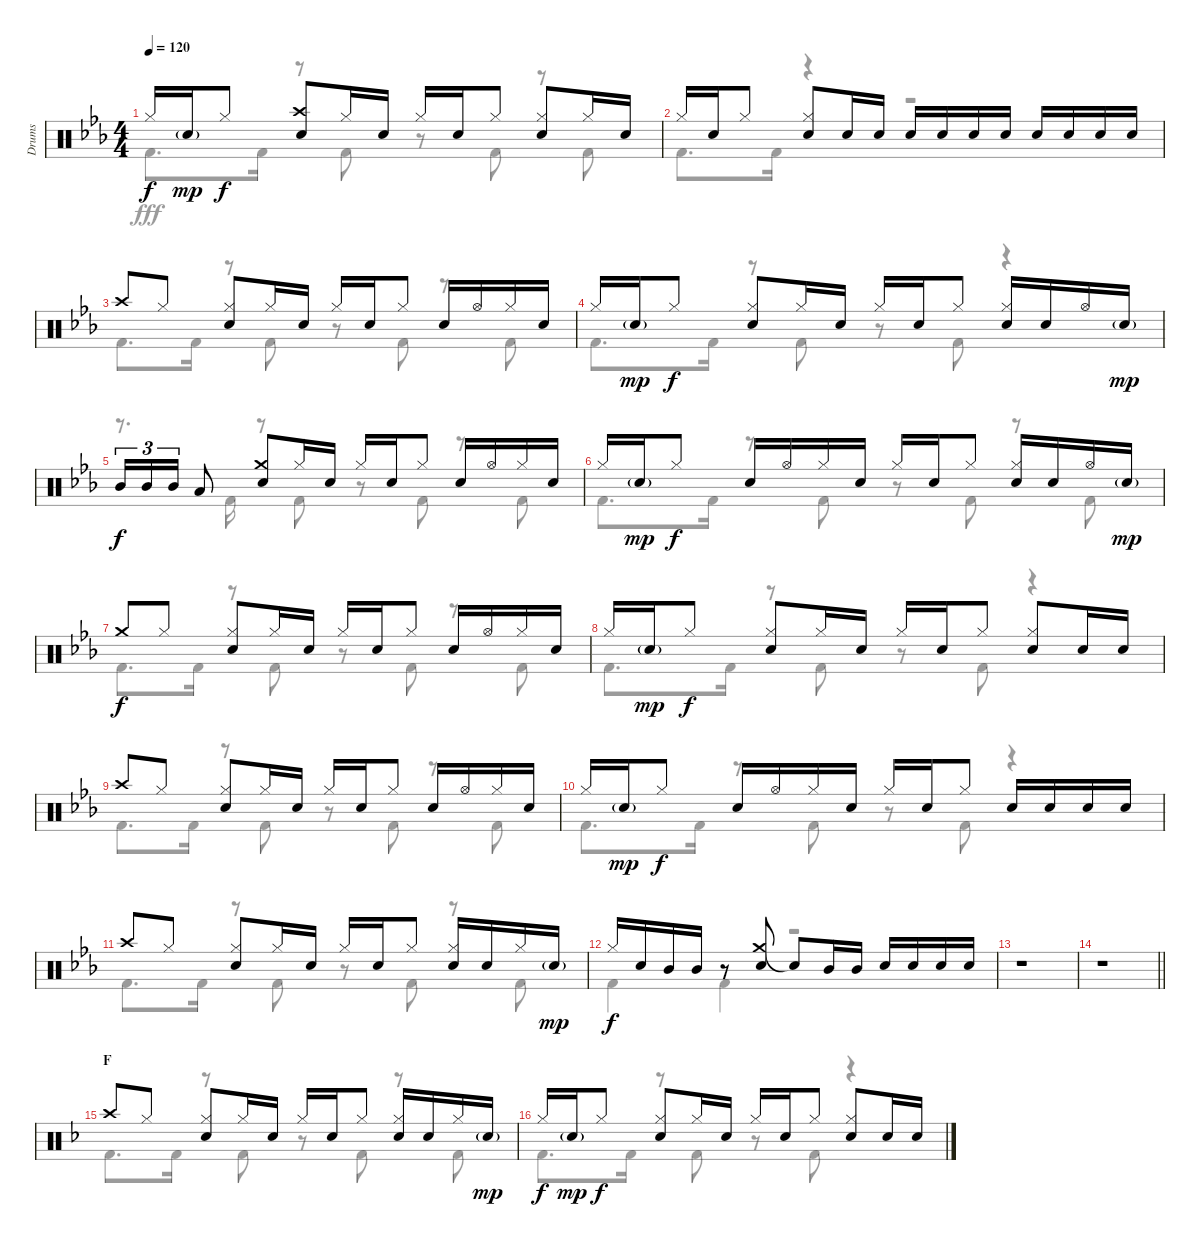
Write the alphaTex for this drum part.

\track ("Drums" "Drums") {instrument percussion}
\staff {score}
\articulation defaults
\voice
\ts (4 4)
\tempo 120
\clef neutral
\ks eb "Hi-Hat (closed)".16{dy f} "Snare (hit) 2"{g}.16{dy mp} "Hi-Hat (closed)".8{dy f}
("Crash high (hit)" "Snare (hit) 2").8 "Hi-Hat (closed)".16 "Snare (hit) 2".16 "Hi-Hat (closed)".16 "Snare (hit) 2".16 "Hi-Hat (closed)".8 ("Hi-Hat (closed)" "Snare (hit) 2").8 "Hi-Hat (closed)".16 "Snare (hit) 2".16 |
"Hi-Hat (closed)".16 "Snare (hit) 2".16 "Hi-Hat (closed)".8 ("Hi-Hat (closed)" "Snare (hit) 2").8 "Snare (hit) 2".16 "Snare (hit) 2".16 "Snare (hit) 2".16 "Snare (hit) 2".16 "Snare (hit) 2".16 "Snare (hit) 2".16 "Snare (hit) 2".16 "Snare (hit) 2".16 "Snare (hit) 2".16 "Snare (hit) 2".16 |
"Crash high (hit)".8 "Hi-Hat (closed)".8 ("Hi-Hat (closed)" "Snare (hit) 2").8 "Hi-Hat (closed)".16 "Snare (hit) 2".16 "Hi-Hat (closed)".16 "Snare (hit) 2".16 "Hi-Hat (closed)".8 "Snare (hit) 2".16 "Hi-Hat (open)".16 "Hi-Hat (closed)".16 "Snare (hit) 2".16 |
"Hi-Hat (closed)".16 "Snare (hit) 2"{g}.16{dy mp} "Hi-Hat (closed)".8{dy f} ("Hi-Hat (closed)" "Snare (hit) 2").8 "Hi-Hat (closed)".16 "Snare (hit) 2".16 "Hi-Hat (closed)".16 "Snare (hit) 2".16 "Hi-Hat (closed)".8 ("Hi-Hat (closed)" "Snare (hit) 2").16 "Snare (hit) 2".16 "Hi-Hat (open)".16 "Snare (hit) 2"{g}.16{dy mp} |
"Mid Tom (hit)".16{tu (3 2) dy f} "Mid Tom (hit)".16{tu (3 2)} "Mid Tom (hit)".16{tu (3 2)} "Low Tom (hit)".8 ("Crash medium (hit)" "Snare (hit) 2").8 "Hi-Hat (closed)".16 "Snare (hit) 2".16 "Hi-Hat (closed)".16 "Snare (hit) 2".16 "Hi-Hat (closed)".8 "Snare (hit) 2".16 "Hi-Hat (open)".16 "Hi-Hat (closed)".16 "Snare (hit) 2".16 |
"Hi-Hat (closed)".16 "Snare (hit) 2"{g}.16{dy mp} "Hi-Hat (closed)".8{dy f} "Snare (hit) 2".16 "Hi-Hat (open)".16 "Hi-Hat (closed)".16 "Snare (hit) 2".16 "Hi-Hat (closed)".16 "Snare (hit) 2".16 "Hi-Hat (closed)".8 ("Hi-Hat (closed)" "Snare (hit) 2").16 "Snare (hit) 2".16 "Hi-Hat (open)".16 "Snare (hit) 2"{g}.16{dy mp} |
"Crash medium (hit)".8{dy f} "Hi-Hat (closed)".8 ("Hi-Hat (closed)" "Snare (hit) 2").8 "Hi-Hat (closed)".16 "Snare (hit) 2".16 "Hi-Hat (closed)".16 "Snare (hit) 2".16 "Hi-Hat (closed)".8 "Snare (hit) 2".16 "Hi-Hat (open)".16 "Hi-Hat (closed)".16 "Snare (hit) 2".16 |
"Hi-Hat (closed)".16 "Snare (hit) 2"{g}.16{dy mp} "Hi-Hat (closed)".8{dy f} ("Hi-Hat (closed)" "Snare (hit) 2").8 "Hi-Hat (closed)".16 "Snare (hit) 2".16 "Hi-Hat (closed)".16 "Snare (hit) 2".16 "Hi-Hat (closed)".8 ("Hi-Hat (closed)" "Snare (hit) 2").8 "Snare (hit) 2".16 "Snare (hit) 2".16 |
"Crash high (hit)".8 "Hi-Hat (closed)".8 ("Hi-Hat (closed)" "Snare (hit) 2").8 "Hi-Hat (closed)".16 "Snare (hit) 2".16 "Hi-Hat (closed)".16 "Snare (hit) 2".16 "Hi-Hat (closed)".8 "Snare (hit) 2".16 "Hi-Hat (open)".16 "Hi-Hat (closed)".16 "Snare (hit) 2".16 |
"Hi-Hat (closed)".16 "Snare (hit) 2"{g}.16{dy mp} "Hi-Hat (closed)".8{dy f} "Snare (hit) 2".16 "Hi-Hat (open)".16 "Hi-Hat (closed)".16 "Snare (hit) 2".16 "Hi-Hat (closed)".16 "Snare (hit) 2".16 "Hi-Hat (closed)".8 "Snare (hit) 2".16 "Snare (hit) 2".16 "Snare (hit) 2".16 "Snare (hit) 2".16 |
"Crash high (hit)".8 "Hi-Hat (closed)".8 ("Hi-Hat (closed)" "Snare (hit) 2").8 "Hi-Hat (closed)".16 "Snare (hit) 2".16 "Hi-Hat (closed)".16 "Snare (hit) 2".16 "Hi-Hat (closed)".8 ("Hi-Hat (closed)" "Snare (hit) 2").16 "Snare (hit) 2".16 "Hi-Hat (closed)".16 "Snare (hit) 2"{g}.16{dy mp} |
"Hi-Hat (closed)".16{dy f} "Snare (hit) 2".16 "Mid Tom (hit)".16 "Mid Tom (hit)".16 r.8 ("Crash medium (hit)" "Snare (hit) 2").8 "Snare (hit)"{t}.8 "Mid Tom (hit)".16 "Mid Tom (hit)".16 "Snare (hit) 2".16 "Snare (hit) 2".16 "Snare (hit) 2".16 "Snare (hit) 2".16 |
r.1 |
\barLineRight lightlight
r.1 |
\section ("" "F")
\ks f "Crash high (hit)".8 "Hi-Hat (closed)".8
("Hi-Hat (closed)" "Snare (hit) 2").8 "Hi-Hat (closed)".16 "Snare (hit) 2".16 "Hi-Hat (closed)".16 "Snare (hit) 2".16 "Hi-Hat (closed)".8 ("Hi-Hat (closed)" "Snare (hit) 2").16 "Snare (hit) 2".16 "Hi-Hat (closed)".16 "Snare (hit) 2"{g}.16{dy mp} |
"Hi-Hat (closed)".16{dy f} "Snare (hit) 2"{g}.16{dy mp} "Hi-Hat (closed)".8{dy f} ("Hi-Hat (closed)" "Snare (hit) 2").8 "Hi-Hat (closed)".16 "Snare (hit) 2".16 "Hi-Hat (closed)".16 "Snare (hit) 2".16 "Hi-Hat (closed)".8 ("Hi-Hat (closed)" "Snare (hit) 2").8 "Snare (hit) 2".16 "Snare (hit) 2".16
\voice
\clef neutral
\ottava regular
\simile none
\ks eb "Kick (hit) 2".8{d dy fff} "Kick (hit) 2".16
r.8 "Kick (hit) 2".8 r.8 "Kick (hit) 2".8 r.8 "Kick (hit) 2".8 |
"Kick (hit) 2".8{d} "Kick (hit) 2".16 r.4 r.2 |
"Kick (hit) 2".8{d} "Kick (hit) 2".16 r.8 "Kick (hit) 2".8 r.8 "Kick (hit) 2".8 r.8 "Kick (hit) 2".8 |
"Kick (hit) 2".8{d} "Kick (hit) 2".16 r.8 "Kick (hit) 2".8 r.8 "Kick (hit) 2".8 r.4 |
r.8{d} "Kick (hit) 2".16 r.8 "Kick (hit) 2".8 r.8 "Kick (hit) 2".8 r.8 "Kick (hit) 2".8 |
"Kick (hit) 2".8{d} "Kick (hit) 2".16 r.8 "Kick (hit) 2".8 r.8 "Kick (hit) 2".8 r.8 "Kick (hit) 2".8 |
"Kick (hit) 2".8{d} "Kick (hit) 2".16 r.8 "Kick (hit) 2".8 r.8 "Kick (hit) 2".8 r.8 "Kick (hit) 2".8 |
"Kick (hit) 2".8{d} "Kick (hit) 2".16 r.8 "Kick (hit) 2".8 r.8 "Kick (hit) 2".8 r.4 |
"Kick (hit) 2".8{d} "Kick (hit) 2".16 r.8 "Kick (hit) 2".8 r.8 "Kick (hit) 2".8 r.8 "Kick (hit) 2".8 |
"Kick (hit) 2".8{d} "Kick (hit) 2".16 r.8 "Kick (hit) 2".8 r.8 "Kick (hit) 2".8 r.4 |
"Kick (hit) 2".8{d} "Kick (hit) 2".16 r.8 "Kick (hit) 2".8 r.8 "Kick (hit) 2".8 r.8 "Kick (hit) 2".8 |
"Kick (hit) 2".4 "Kick (hit) 2".4 r.2 |
r.1 |
\barLineRight lightlight
r.1 |
\ks f "Kick (hit) 2".8{d} "Kick (hit) 2".16
r.8 "Kick (hit) 2".8 r.8 "Kick (hit) 2".8 r.8 "Kick (hit) 2".8 |
"Kick (hit) 2".8{d} "Kick (hit) 2".16 r.8 "Kick (hit) 2".8 r.8 "Kick (hit) 2".8 r.4
